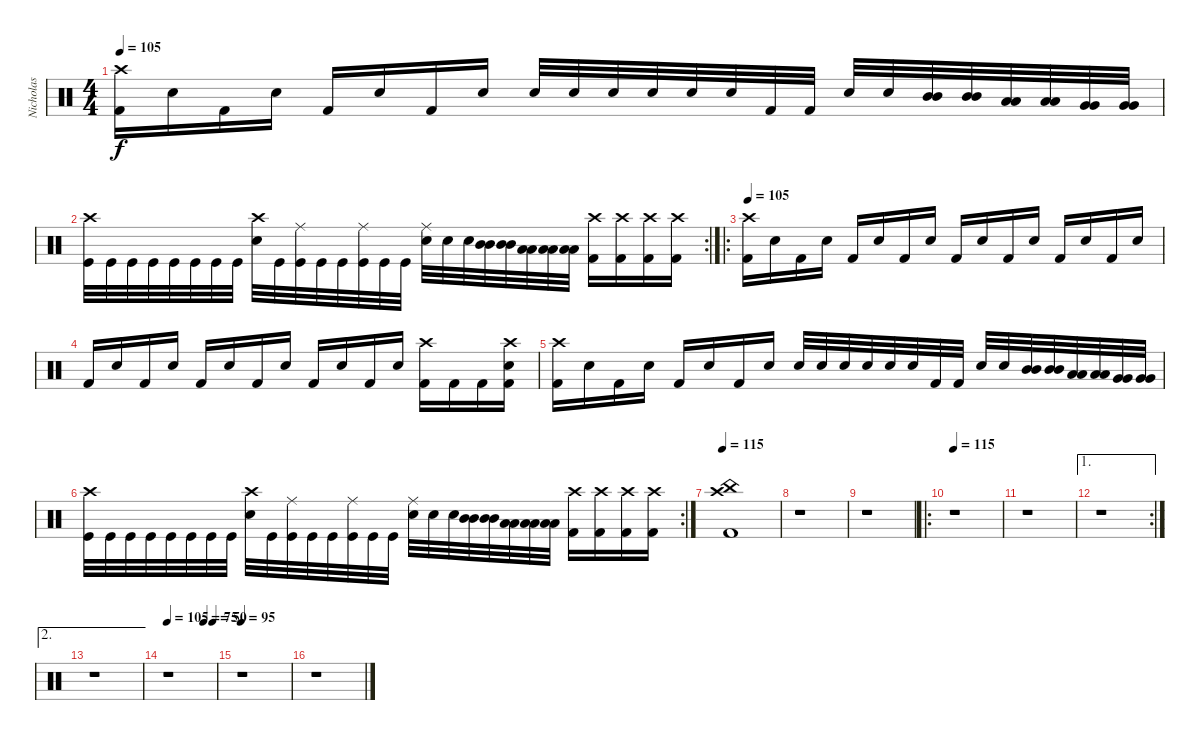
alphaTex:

\track ("Nicholas" "Nicholas") {instrument percussion}
\staff {score}
\articulation defaults
\ts (4 4)
\tempo 105
\clef neutral
\ks c
("Kick (hit) 2" "Crash high (hit)").16{dy f} "Electric Snare (hit)".16 "Kick (hit) 2".16 "Electric Snare (hit)".16 "Kick (hit) 2".16 "Electric Snare (hit)".16 "Kick (hit) 2".16 "Electric Snare (hit)".16 "Electric Snare (hit)".32 "Electric Snare (hit)".32 "Electric Snare (hit)".32 "Electric Snare (hit)".32 "Electric Snare (hit)".32 "Electric Snare (hit)".32 "Kick (hit) 2".32 "Kick (hit) 2".32 "Electric Snare (hit)".32 "Electric Snare (hit)".32 ("Mid Tom (hit)" "Mid Tom (hit)").32 ("Mid Tom (hit)" "Mid Tom (hit)").32 ("Low Tom (hit)" "Low Tom (hit)").32 ("Low Tom (hit)" "Low Tom (hit)").32 ("Very Low Tom (hit)" "Very Low Tom (hit)").32 ("Very Low Tom (hit)" "Very Low Tom (hit)").32 |
\rc 2
("Kick (hit)" "Crash high (hit)").32 "Kick (hit)".32 "Kick (hit)".32 "Kick (hit)".32 "Kick (hit)".32 "Kick (hit)".32 "Kick (hit)".32 "Kick (hit)".32 ("Electric Snare (hit)" "Crash high (hit)").32 "Kick (hit)".32 ("Kick (hit)" "Ride (middle)").32 "Kick (hit)".32 "Kick (hit)".32 ("Kick (hit)" "Ride (middle)").32 "Kick (hit)".32 "Kick (hit)".32 ("Electric Snare (hit)" "Ride (middle)").32 "Electric Snare (hit)".32 "Electric Snare (hit)".32 ("Mid Tom (hit)" "Mid Tom (hit)").32 ("Mid Tom (hit)" "Mid Tom (hit)").32 ("Low Tom (hit)" "Low Tom (hit)").32 ("Low Tom (hit)" "Low Tom (hit)").32 ("Low Tom (hit)" "Low Tom (hit)").32 ("Kick (hit) 2" "Crash high (hit)").16 ("Kick (hit) 2" "Crash high (hit)").16 ("Kick (hit) 2" "Crash high (hit)").16 ("Kick (hit) 2" "Crash high (hit)").16 |
\ro
\tempo 105
("Kick (hit) 2" "Crash high (hit)").16 "Electric Snare (hit)".16 "Kick (hit) 2".16 "Electric Snare (hit)".16 "Kick (hit) 2".16 "Electric Snare (hit)".16 "Kick (hit) 2".16 "Electric Snare (hit)".16 "Kick (hit) 2".16 "Electric Snare (hit)".16 "Kick (hit) 2".16 "Electric Snare (hit)".16 "Kick (hit) 2".16 "Electric Snare (hit)".16 "Kick (hit) 2".16 "Electric Snare (hit)".16 |
"Kick (hit) 2".16 "Electric Snare (hit)".16 "Kick (hit) 2".16 "Electric Snare (hit)".16 "Kick (hit) 2".16 "Electric Snare (hit)".16 "Kick (hit) 2".16 "Electric Snare (hit)".16 "Kick (hit) 2".16 "Electric Snare (hit)".16 "Kick (hit) 2".16 "Electric Snare (hit)".16 ("Kick (hit) 2" "Crash high (hit)").16 "Kick (hit) 2".16 "Kick (hit) 2".16 ("Kick (hit) 2" "Crash high (hit)" "Electric Snare (hit)").16 |
("Kick (hit) 2" "Crash high (hit)").16 "Electric Snare (hit)".16 "Kick (hit) 2".16 "Electric Snare (hit)".16 "Kick (hit) 2".16 "Electric Snare (hit)".16 "Kick (hit) 2".16 "Electric Snare (hit)".16 "Electric Snare (hit)".32 "Electric Snare (hit)".32 "Electric Snare (hit)".32 "Electric Snare (hit)".32 "Electric Snare (hit)".32 "Electric Snare (hit)".32 "Kick (hit) 2".32 "Kick (hit) 2".32 "Electric Snare (hit)".32 "Electric Snare (hit)".32 ("Mid Tom (hit)" "Mid Tom (hit)").32 ("Mid Tom (hit)" "Mid Tom (hit)").32 ("Low Tom (hit)" "Low Tom (hit)").32 ("Low Tom (hit)" "Low Tom (hit)").32 ("Very Low Tom (hit)" "Very Low Tom (hit)").32 ("Very Low Tom (hit)" "Very Low Tom (hit)").32 |
\rc 2
("Kick (hit)" "Crash high (hit)").32 "Kick (hit)".32 "Kick (hit)".32 "Kick (hit)".32 "Kick (hit)".32 "Kick (hit)".32 "Kick (hit)".32 "Kick (hit)".32 ("Electric Snare (hit)" "Crash high (hit)").32 "Kick (hit)".32 ("Kick (hit)" "Ride (middle)").32 "Kick (hit)".32 "Kick (hit)".32 ("Kick (hit)" "Ride (middle)").32 "Kick (hit)".32 "Kick (hit)".32 ("Electric Snare (hit)" "Ride (middle)").32 "Electric Snare (hit)".32 "Electric Snare (hit)".32 ("Mid Tom (hit)" "Mid Tom (hit)").32 ("Mid Tom (hit)" "Mid Tom (hit)").32 ("Low Tom (hit)" "Low Tom (hit)").32 ("Low Tom (hit)" "Low Tom (hit)").32 ("Low Tom (hit)" "Low Tom (hit)").32 ("Kick (hit) 2" "Crash high (hit)").16 ("Kick (hit) 2" "Crash high (hit)").16 ("Kick (hit) 2" "Crash high (hit)").16 ("Kick (hit) 2" "Crash high (hit)").16 |
\tempo 115
("China (hit)" "Crash high (hit)" "Kick (hit) 2").1 |
r.1 |
r.1 |
\ro
\tempo 115
r.1 |
r.1 |
\ae 1
\rc 2
r.1 |
\ae 2
r.1 |
\tempo 105
\tempo (75 0.75)
\tempo (50 0.9375)
r.1 |
\tempo 95
r.1 |
r.1
